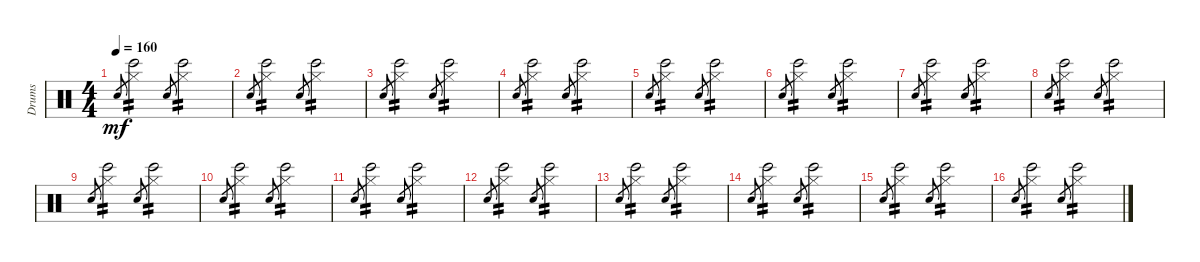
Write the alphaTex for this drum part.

\track ("Drums" "Drums") {instrument percussion}
\staff {score}
\articulation defaults
\ts (4 4)
\tempo 160
\clef neutral
\ks c "Snare (hit)".8{gr dy mf}
("Hi-Hat (closed)" "Bongo High (hit)").2{tp 2} "Snare (hit)".8{gr} ("Hi-Hat (closed)" "Bongo High (hit)").2{tp 2} |
"Snare (hit)".8{gr} ("Hi-Hat (closed)" "Bongo High (hit)").2{tp 2} "Snare (hit)".8{gr} ("Hi-Hat (closed)" "Bongo High (hit)").2{tp 2} |
"Snare (hit)".8{gr} ("Hi-Hat (closed)" "Bongo High (hit)").2{tp 2} "Snare (hit)".8{gr} ("Hi-Hat (closed)" "Bongo High (hit)").2{tp 2} |
"Snare (hit)".8{gr} ("Hi-Hat (closed)" "Bongo High (hit)").2{tp 2} "Snare (hit)".8{gr} ("Hi-Hat (closed)" "Bongo High (hit)").2{tp 2} |
"Snare (hit)".8{gr} ("Hi-Hat (closed)" "Bongo High (hit)").2{tp 2} "Snare (hit)".8{gr} ("Hi-Hat (closed)" "Bongo High (hit)").2{tp 2} |
"Snare (hit)".8{gr} ("Hi-Hat (closed)" "Bongo High (hit)").2{tp 2} "Snare (hit)".8{gr} ("Hi-Hat (closed)" "Bongo High (hit)").2{tp 2} |
"Snare (hit)".8{gr} ("Hi-Hat (closed)" "Bongo High (hit)").2{tp 2} "Snare (hit)".8{gr} ("Hi-Hat (closed)" "Bongo High (hit)").2{tp 2} |
"Snare (hit)".8{gr} ("Hi-Hat (closed)" "Bongo High (hit)").2{tp 2} "Snare (hit)".8{gr} ("Hi-Hat (closed)" "Bongo High (hit)").2{tp 2} |
"Snare (hit)".8{gr} ("Hi-Hat (closed)" "Bongo High (hit)").2{tp 2} "Snare (hit)".8{gr} ("Hi-Hat (closed)" "Bongo High (hit)").2{tp 2} |
"Snare (hit)".8{gr} ("Hi-Hat (closed)" "Bongo High (hit)").2{tp 2} "Snare (hit)".8{gr} ("Hi-Hat (closed)" "Bongo High (hit)").2{tp 2} |
"Snare (hit)".8{gr} ("Hi-Hat (closed)" "Bongo High (hit)").2{tp 2} "Snare (hit)".8{gr} ("Hi-Hat (closed)" "Bongo High (hit)").2{tp 2} |
"Snare (hit)".8{gr} ("Hi-Hat (closed)" "Bongo High (hit)").2{tp 2} "Snare (hit)".8{gr} ("Hi-Hat (closed)" "Bongo High (hit)").2{tp 2} |
"Snare (hit)".8{gr} ("Hi-Hat (closed)" "Bongo High (hit)").2{tp 2} "Snare (hit)".8{gr} ("Hi-Hat (closed)" "Bongo High (hit)").2{tp 2} |
"Snare (hit)".8{gr} ("Hi-Hat (closed)" "Bongo High (hit)").2{tp 2} "Snare (hit)".8{gr} ("Hi-Hat (closed)" "Bongo High (hit)").2{tp 2} |
"Snare (hit)".8{gr} ("Hi-Hat (closed)" "Bongo High (hit)").2{tp 2} "Snare (hit)".8{gr} ("Hi-Hat (closed)" "Bongo High (hit)").2{tp 2} |
"Snare (hit)".8{gr} ("Hi-Hat (closed)" "Bongo High (hit)").2{tp 2} "Snare (hit)".8{gr} ("Hi-Hat (closed)" "Bongo High (hit)").2{tp 2}
